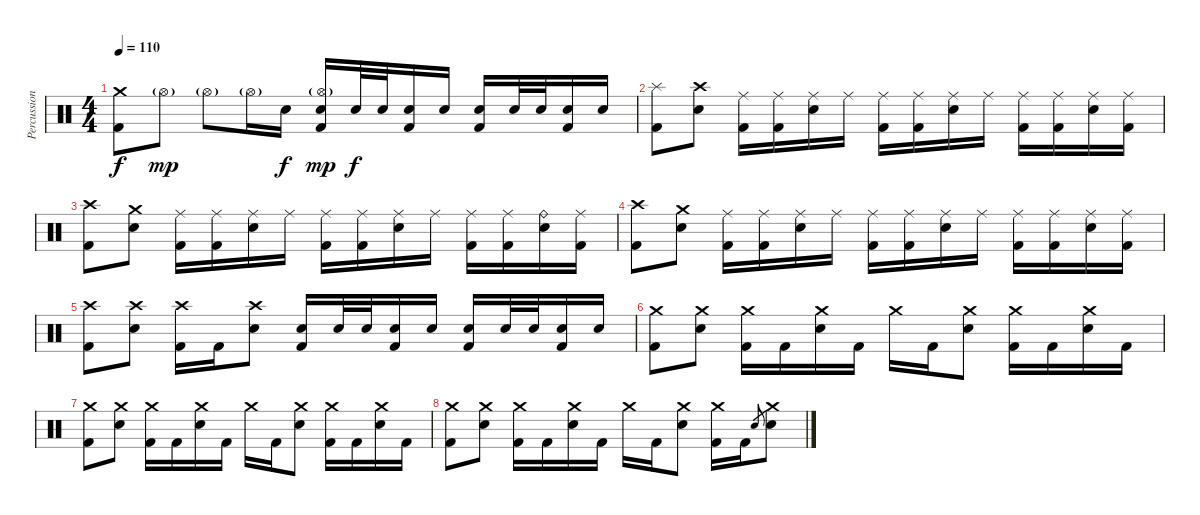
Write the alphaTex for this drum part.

\track ("Percussion" "Percussion") {instrument percussion}
\staff {score}
\articulation defaults
\ts (4 4)
\tempo 110
\clef neutral
\ks c
("Crash medium (hit)" "Kick (hit) 2").8{dy f} "Hi-Hat (open)"{g}.8{dy mp} "Hi-Hat (open)"{g}.8 "Hi-Hat (open)"{g}.16 "Electric Snare (hit)".16{dy f} ("Hi-Hat (open)"{g} "Electric Snare (hit)" "Kick (hit) 2").16{dy mp} "Electric Snare (hit)".32{dy f} "Electric Snare (hit)".32 ("Electric Snare (hit)" "Kick (hit) 2").16 "Electric Snare (hit)".16 ("Electric Snare (hit)" "Kick (hit) 2").16 "Electric Snare (hit)".32 "Electric Snare (hit)".32 ("Electric Snare (hit)" "Kick (hit) 2").16 "Electric Snare (hit)".16 |
("Splash (hit)" "Kick (hit) 2").8 ("Crash high (hit)" "Electric Snare (hit)").8 ("Ride (middle)" "Kick (hit) 2").16 ("Ride (middle)" "Kick (hit) 2").16 ("Ride (middle)" "Electric Snare (hit)").16 "Ride (middle)".16 ("Ride (middle)" "Kick (hit) 2").16 ("Ride (middle)" "Kick (hit) 2").16 ("Ride (middle)" "Electric Snare (hit)").16 "Ride (middle)".16 ("Ride (middle)" "Kick (hit) 2").16 ("Ride (middle)" "Kick (hit) 2").16 ("Ride (middle)" "Electric Snare (hit)").16 ("Ride (middle)" "Kick (hit) 2").16 |
("Crash high (hit)" "Kick (hit) 2").8 ("Crash medium (hit)" "Electric Snare (hit)").8 ("Ride (middle)" "Kick (hit) 2").16 ("Ride (middle)" "Kick (hit) 2").16 ("Ride (middle)" "Electric Snare (hit)").16 "Ride (middle)".16 ("Ride (middle)" "Kick (hit) 2").16 ("Ride (middle)" "Kick (hit) 2").16 ("Ride (middle)" "Electric Snare (hit)").16 "Ride (middle)".16 ("Ride (middle)" "Kick (hit) 2").16 ("Ride (middle)" "Kick (hit) 2").16 ("Ride (bell)" "Electric Snare (hit)").16 ("Ride (middle)" "Kick (hit) 2").16 |
("Crash high (hit)" "Kick (hit) 2").8 ("Crash medium (hit)" "Electric Snare (hit)").8 ("Ride (middle)" "Kick (hit) 2").16 ("Ride (middle)" "Kick (hit) 2").16 ("Ride (middle)" "Electric Snare (hit)").16 "Ride (middle)".16 ("Ride (middle)" "Kick (hit) 2").16 ("Ride (middle)" "Kick (hit) 2").16 ("Ride (middle)" "Electric Snare (hit)").16 "Ride (middle)".16 ("Ride (middle)" "Kick (hit) 2").16 ("Ride (middle)" "Kick (hit) 2").16 ("Ride (middle)" "Electric Snare (hit)").16 ("Ride (middle)" "Kick (hit) 2").16 |
("Crash high (hit)" "Kick (hit) 2").8 ("Crash high (hit)" "Electric Snare (hit)").8 ("Crash high (hit)" "Kick (hit) 2").16 "Kick (hit) 2".16 ("Crash high (hit)" "Electric Snare (hit)").8 ("Electric Snare (hit)" "Kick (hit) 2").16 "Electric Snare (hit)".32 "Electric Snare (hit)".32 ("Electric Snare (hit)" "Kick (hit) 2").16 "Electric Snare (hit)".16 ("Electric Snare (hit)" "Kick (hit) 2").16 "Electric Snare (hit)".32 "Electric Snare (hit)".32 ("Electric Snare (hit)" "Kick (hit) 2").16 "Electric Snare (hit)".16 |
("Crash medium (hit)" "Kick (hit) 2").8 ("Crash medium (hit)" "Electric Snare (hit)").8 ("Crash medium (hit)" "Kick (hit) 2").16 "Kick (hit) 2".16 ("Crash medium (hit)" "Electric Snare (hit)").16 "Kick (hit) 2".16 "Crash medium (hit)".16 "Kick (hit) 2".16 ("Crash medium (hit)" "Electric Snare (hit)").8 ("Crash medium (hit)" "Kick (hit) 2").16 "Kick (hit) 2".16 ("Crash medium (hit)" "Electric Snare (hit)").16 "Kick (hit) 2".16 |
("Crash medium (hit)" "Kick (hit) 2").8 ("Crash medium (hit)" "Electric Snare (hit)").8 ("Crash medium (hit)" "Kick (hit) 2").16 "Kick (hit) 2".16 ("Crash medium (hit)" "Electric Snare (hit)").16 "Kick (hit) 2".16 "Crash medium (hit)".16 "Kick (hit) 2".16 ("Crash medium (hit)" "Electric Snare (hit)").8 ("Crash medium (hit)" "Kick (hit) 2").16 "Kick (hit) 2".16 ("Crash medium (hit)" "Electric Snare (hit)").16 "Kick (hit) 2".16 |
("Crash medium (hit)" "Kick (hit) 2").8 ("Crash medium (hit)" "Electric Snare (hit)").8 ("Crash medium (hit)" "Kick (hit) 2").16 "Kick (hit) 2".16 ("Crash medium (hit)" "Electric Snare (hit)").16 "Kick (hit) 2".16 "Crash medium (hit)".16 "Kick (hit) 2".16 ("Crash medium (hit)" "Electric Snare (hit)").8 ("Crash medium (hit)" "Kick (hit) 2").16 "Kick (hit) 2".16 "Electric Snare (hit)".8{gr} ("Crash medium (hit)" "Electric Snare (hit)").8
